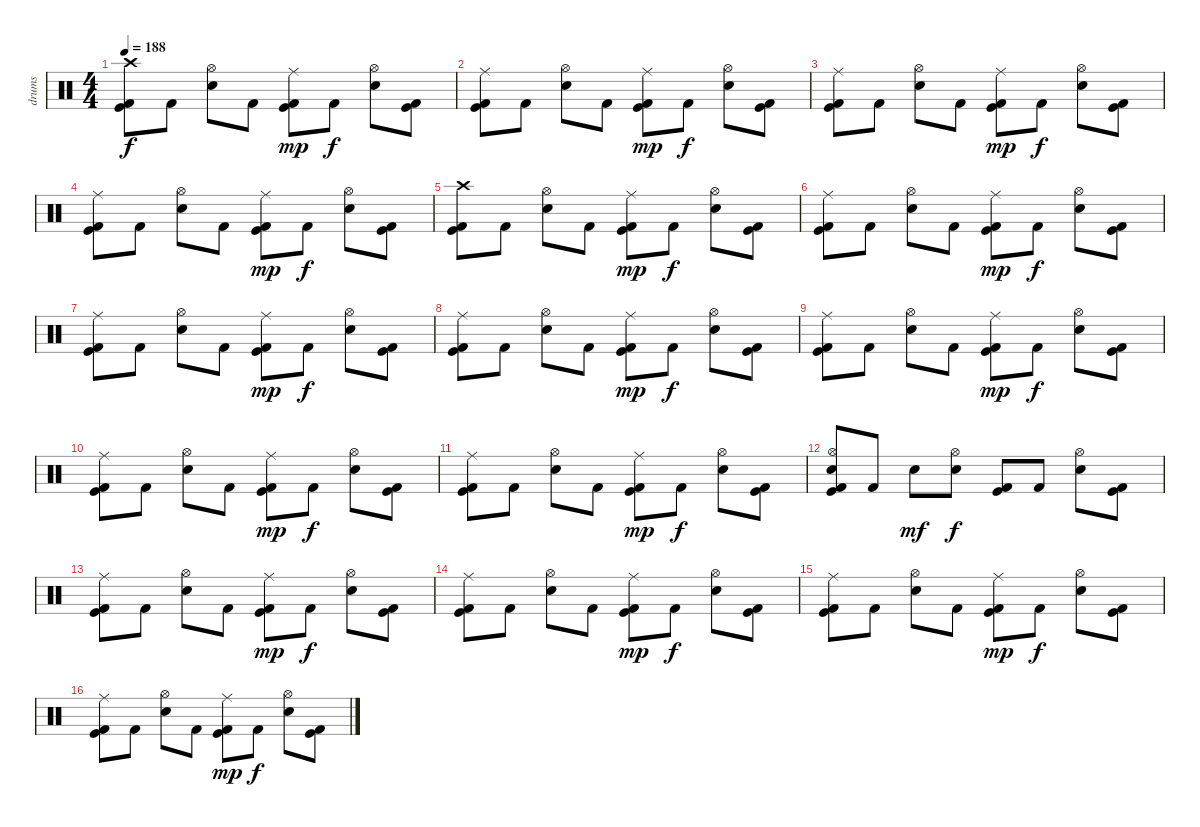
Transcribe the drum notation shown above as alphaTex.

\track ("drums" "drums") {instrument percussion}
\staff {score}
\articulation defaults
\ts (4 4)
\tempo 188
\clef neutral
\ks c
("Crash high (hit)" "Kick (hit)" "Kick (hit) 2").8{dy f} "Kick (hit) 2".8 ("Hi-Hat (open)" "Snare (hit) 2").8 "Kick (hit) 2".8 ("Ride (middle)" "Kick (hit)" "Kick (hit) 2").8{dy mp} "Kick (hit) 2".8{dy f} ("Hi-Hat (open)" "Snare (hit) 2").8 ("Kick (hit)" "Kick (hit) 2").8 |
("Ride (middle)" "Kick (hit)" "Kick (hit) 2").8 "Kick (hit) 2".8 ("Hi-Hat (open)" "Snare (hit) 2").8 "Kick (hit) 2".8 ("Ride (middle)" "Kick (hit)" "Kick (hit) 2").8{dy mp} "Kick (hit) 2".8{dy f} ("Hi-Hat (open)" "Snare (hit) 2").8 ("Kick (hit)" "Kick (hit) 2").8 |
("Ride (middle)" "Kick (hit)" "Kick (hit) 2").8 "Kick (hit) 2".8 ("Hi-Hat (open)" "Snare (hit) 2").8 "Kick (hit) 2".8 ("Ride (middle)" "Kick (hit)" "Kick (hit) 2").8{dy mp} "Kick (hit) 2".8{dy f} ("Hi-Hat (open)" "Snare (hit) 2").8 ("Kick (hit)" "Kick (hit) 2").8 |
("Ride (middle)" "Kick (hit)" "Kick (hit) 2").8 "Kick (hit) 2".8 ("Hi-Hat (open)" "Snare (hit) 2").8 "Kick (hit) 2".8 ("Ride (middle)" "Kick (hit)" "Kick (hit) 2").8{dy mp} "Kick (hit) 2".8{dy f} ("Hi-Hat (open)" "Snare (hit) 2").8 ("Kick (hit)" "Kick (hit) 2").8 |
("Crash high (hit)" "Kick (hit)" "Kick (hit) 2").8 "Kick (hit) 2".8 ("Hi-Hat (open)" "Snare (hit) 2").8 "Kick (hit) 2".8 ("Ride (middle)" "Kick (hit)" "Kick (hit) 2").8{dy mp} "Kick (hit) 2".8{dy f} ("Hi-Hat (open)" "Snare (hit) 2").8 ("Kick (hit)" "Kick (hit) 2").8 |
("Ride (middle)" "Kick (hit)" "Kick (hit) 2").8 "Kick (hit) 2".8 ("Hi-Hat (open)" "Snare (hit) 2").8 "Kick (hit) 2".8 ("Ride (middle)" "Kick (hit)" "Kick (hit) 2").8{dy mp} "Kick (hit) 2".8{dy f} ("Hi-Hat (open)" "Snare (hit) 2").8 ("Kick (hit)" "Kick (hit) 2").8 |
("Ride (middle)" "Kick (hit)" "Kick (hit) 2").8 "Kick (hit) 2".8 ("Hi-Hat (open)" "Snare (hit) 2").8 "Kick (hit) 2".8 ("Ride (middle)" "Kick (hit)" "Kick (hit) 2").8{dy mp} "Kick (hit) 2".8{dy f} ("Hi-Hat (open)" "Snare (hit) 2").8 ("Kick (hit)" "Kick (hit) 2").8 |
("Ride (middle)" "Kick (hit)" "Kick (hit) 2").8 "Kick (hit) 2".8 ("Hi-Hat (open)" "Snare (hit) 2").8 "Kick (hit) 2".8 ("Ride (middle)" "Kick (hit)" "Kick (hit) 2").8{dy mp} "Kick (hit) 2".8{dy f} ("Hi-Hat (open)" "Snare (hit) 2").8 ("Kick (hit)" "Kick (hit) 2").8 |
("Ride (middle)" "Kick (hit)" "Kick (hit) 2").8 "Kick (hit) 2".8 ("Hi-Hat (open)" "Snare (hit) 2").8 "Kick (hit) 2".8 ("Ride (middle)" "Kick (hit)" "Kick (hit) 2").8{dy mp} "Kick (hit) 2".8{dy f} ("Hi-Hat (open)" "Snare (hit) 2").8 ("Kick (hit)" "Kick (hit) 2").8 |
("Ride (middle)" "Kick (hit)" "Kick (hit) 2").8 "Kick (hit) 2".8 ("Hi-Hat (open)" "Snare (hit) 2").8 "Kick (hit) 2".8 ("Ride (middle)" "Kick (hit)" "Kick (hit) 2").8{dy mp} "Kick (hit) 2".8{dy f} ("Hi-Hat (open)" "Snare (hit) 2").8 ("Kick (hit)" "Kick (hit) 2").8 |
("Ride (middle)" "Kick (hit)" "Kick (hit) 2").8 "Kick (hit) 2".8 ("Hi-Hat (open)" "Snare (hit) 2").8 "Kick (hit) 2".8 ("Ride (middle)" "Kick (hit)" "Kick (hit) 2").8{dy mp} "Kick (hit) 2".8{dy f} ("Hi-Hat (open)" "Snare (hit) 2").8 ("Kick (hit)" "Kick (hit) 2").8 |
("Hi-Hat (open)" "Snare (hit) 2" "Kick (hit)" "Kick (hit) 2").8 "Kick (hit) 2".8 "Snare (hit) 2".8{dy mf} ("Hi-Hat (open)" "Snare (hit) 2").8{dy f} ("Kick (hit)" "Kick (hit) 2").8 "Kick (hit) 2".8 ("Hi-Hat (open)" "Snare (hit) 2").8 ("Kick (hit)" "Kick (hit) 2").8 |
("Ride (middle)" "Kick (hit)" "Kick (hit) 2").8 "Kick (hit) 2".8 ("Hi-Hat (open)" "Snare (hit) 2").8 "Kick (hit) 2".8 ("Ride (middle)" "Kick (hit)" "Kick (hit) 2").8{dy mp} "Kick (hit) 2".8{dy f} ("Hi-Hat (open)" "Snare (hit) 2").8 ("Kick (hit)" "Kick (hit) 2").8 |
("Ride (middle)" "Kick (hit)" "Kick (hit) 2").8 "Kick (hit) 2".8 ("Hi-Hat (open)" "Snare (hit) 2").8 "Kick (hit) 2".8 ("Ride (middle)" "Kick (hit)" "Kick (hit) 2").8{dy mp} "Kick (hit) 2".8{dy f} ("Hi-Hat (open)" "Snare (hit) 2").8 ("Kick (hit)" "Kick (hit) 2").8 |
("Ride (middle)" "Kick (hit)" "Kick (hit) 2").8 "Kick (hit) 2".8 ("Hi-Hat (open)" "Snare (hit) 2").8 "Kick (hit) 2".8 ("Ride (middle)" "Kick (hit)" "Kick (hit) 2").8{dy mp} "Kick (hit) 2".8{dy f} ("Hi-Hat (open)" "Snare (hit) 2").8 ("Kick (hit)" "Kick (hit) 2").8 |
("Ride (middle)" "Kick (hit)" "Kick (hit) 2").8 "Kick (hit) 2".8 ("Hi-Hat (open)" "Snare (hit) 2").8 "Kick (hit) 2".8 ("Ride (middle)" "Kick (hit)" "Kick (hit) 2").8{dy mp} "Kick (hit) 2".8{dy f} ("Hi-Hat (open)" "Snare (hit) 2").8 ("Kick (hit)" "Kick (hit) 2").8
